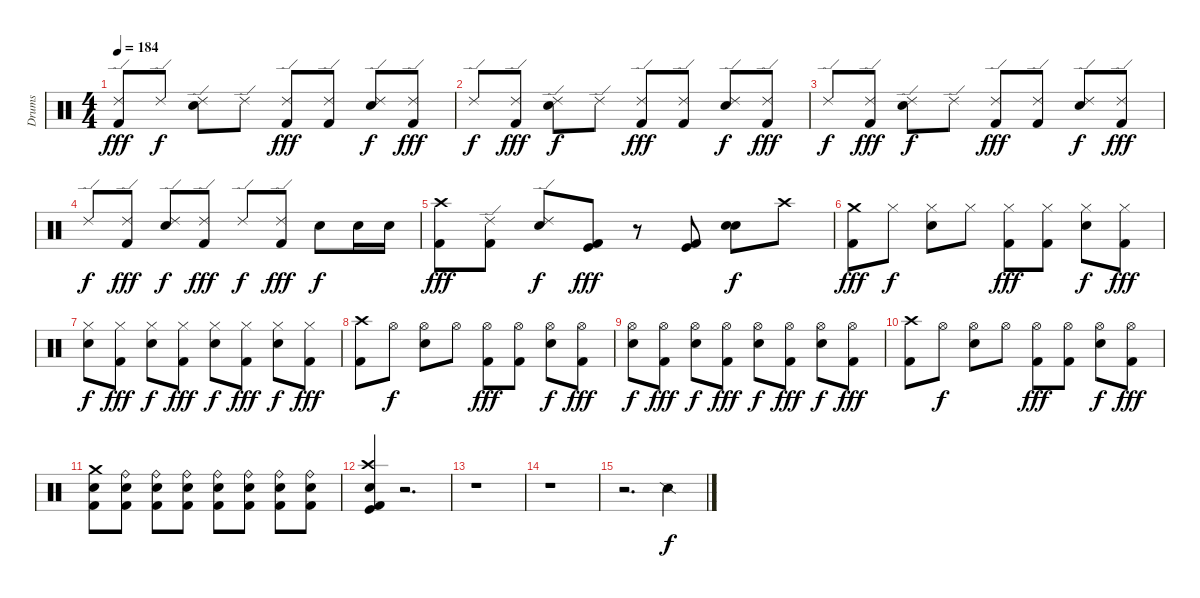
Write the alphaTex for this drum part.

\track ("Drums" "Drums") {instrument percussion}
\staff {score}
\articulation defaults
\ts (4 4)
\tempo 184
\clef neutral
\ks c
("Ride (edge) 2" "Kick (hit) 2").8{dy fff} "Ride (edge) 2".8{dy f} ("Ride (edge) 2" "Snare (hit) 2").8 "Ride (edge) 2".8 ("Ride (edge) 2" "Kick (hit) 2").8{dy fff} ("Ride (edge) 2" "Kick (hit) 2").8 ("Ride (edge) 2" "Snare (hit) 2").8{dy f} ("Ride (edge) 2" "Kick (hit) 2").8{dy fff} |
"Ride (edge) 2".8{dy f} ("Ride (edge) 2" "Kick (hit) 2").8{dy fff} ("Ride (edge) 2" "Snare (hit) 2").8{dy f} "Ride (edge) 2".8 ("Ride (edge) 2" "Kick (hit) 2").8{dy fff} ("Ride (edge) 2" "Kick (hit) 2").8 ("Ride (edge) 2" "Snare (hit) 2").8{dy f} ("Ride (edge) 2" "Kick (hit) 2").8{dy fff} |
"Ride (edge) 2".8{dy f} ("Ride (edge) 2" "Kick (hit) 2").8{dy fff} ("Ride (edge) 2" "Snare (hit) 2").8{dy f} "Ride (edge) 2".8 ("Ride (edge) 2" "Kick (hit) 2").8{dy fff} ("Ride (edge) 2" "Kick (hit) 2").8 ("Ride (edge) 2" "Snare (hit) 2").8{dy f} ("Ride (edge) 2" "Kick (hit) 2").8{dy fff} |
"Ride (edge) 2".8{dy f} ("Ride (edge) 2" "Kick (hit) 2").8{dy fff} ("Ride (edge) 2" "Snare (hit) 2").8{dy f} ("Ride (edge) 2" "Kick (hit) 2").8{dy fff} "Ride (edge) 2".8{dy f} ("Ride (edge) 2" "Kick (hit) 2").8{dy fff} "Snare (hit) 2".8{dy f} "Snare (hit) 2".16 "Snare (hit) 2".16 |
("Crash high (hit)" "Kick (hit) 2").8{dy fff} ("Ride (edge) 2" "Kick (hit) 2").8 ("Ride (edge) 2" "Snare (hit) 2").8{dy f} ("Kick (hit)" "Kick (hit) 2").8{dy fff} r.8 ("Kick (hit)" "Kick (hit) 2").8 ("Snare (hit) 2" "Snare (hit) 2").8{dy f} "Crash high (hit)".8 |
("Crash medium (hit)" "Kick (hit) 2").8{dy fff} "Hi-Hat (closed)".8{dy f} ("Hi-Hat (closed)" "Snare (hit) 2").8 "Hi-Hat (closed)".8 ("Hi-Hat (closed)" "Kick (hit) 2").8{dy fff} ("Hi-Hat (closed)" "Kick (hit) 2").8 ("Hi-Hat (closed)" "Snare (hit) 2").8{dy f} ("Hi-Hat (closed)" "Kick (hit) 2").8{dy fff} |
("Hi-Hat (closed)" "Snare (hit) 2").8{dy f} ("Hi-Hat (closed)" "Kick (hit) 2").8{dy fff} ("Hi-Hat (closed)" "Snare (hit) 2").8{dy f} ("Hi-Hat (closed)" "Kick (hit) 2").8{dy fff} ("Hi-Hat (closed)" "Snare (hit) 2").8{dy f} ("Hi-Hat (closed)" "Kick (hit) 2").8{dy fff} ("Hi-Hat (closed)" "Snare (hit) 2").8{dy f} ("Hi-Hat (closed)" "Kick (hit) 2").8{dy fff} |
("Crash high (hit)" "Kick (hit) 2").8 "Hi-Hat (open)".8{dy f} ("Hi-Hat (open)" "Snare (hit) 2").8 "Hi-Hat (open)".8 ("Hi-Hat (open)" "Kick (hit) 2").8{dy fff} ("Hi-Hat (open)" "Kick (hit) 2").8 ("Hi-Hat (open)" "Snare (hit) 2").8{dy f} ("Hi-Hat (open)" "Kick (hit) 2").8{dy fff} |
("Hi-Hat (open)" "Snare (hit) 2").8{dy f} ("Hi-Hat (open)" "Kick (hit) 2").8{dy fff} ("Hi-Hat (open)" "Snare (hit) 2").8{dy f} ("Hi-Hat (open)" "Kick (hit) 2").8{dy fff} ("Hi-Hat (open)" "Snare (hit) 2").8{dy f} ("Hi-Hat (open)" "Kick (hit) 2").8{dy fff} ("Hi-Hat (open)" "Snare (hit) 2").8{dy f} ("Hi-Hat (open)" "Kick (hit) 2").8{dy fff} |
("Crash high (hit)" "Kick (hit) 2").8 "Hi-Hat (open)".8{dy f} ("Hi-Hat (open)" "Snare (hit) 2").8 "Hi-Hat (open)".8 ("Hi-Hat (open)" "Kick (hit) 2").8{dy fff} ("Hi-Hat (open)" "Kick (hit) 2").8 ("Hi-Hat (open)" "Snare (hit) 2").8{dy f} ("Hi-Hat (open)" "Kick (hit) 2").8{dy fff} |
("Crash medium (hit)" "Snare (hit) 2" "Kick (hit) 2").8 ("Ride (bell)" "Snare (hit) 2" "Kick (hit) 2").8 ("Ride (bell)" "Snare (hit) 2" "Kick (hit) 2").8 ("Ride (bell)" "Snare (hit) 2" "Kick (hit) 2").8 ("Ride (bell)" "Snare (hit) 2" "Kick (hit) 2").8 ("Ride (bell)" "Snare (hit) 2" "Kick (hit) 2").8 ("Ride (bell)" "Snare (hit) 2" "Kick (hit) 2").8 ("Ride (bell)" "Snare (hit) 2" "Kick (hit) 2").8 |
("Crash high (hit)" "Snare (hit) 2" "Kick (hit)" "Kick (hit) 2").4 r.2{d} |
r.1 |
r.1 |
r.2{d} "Snare (side stick) 2".4{dy f}
